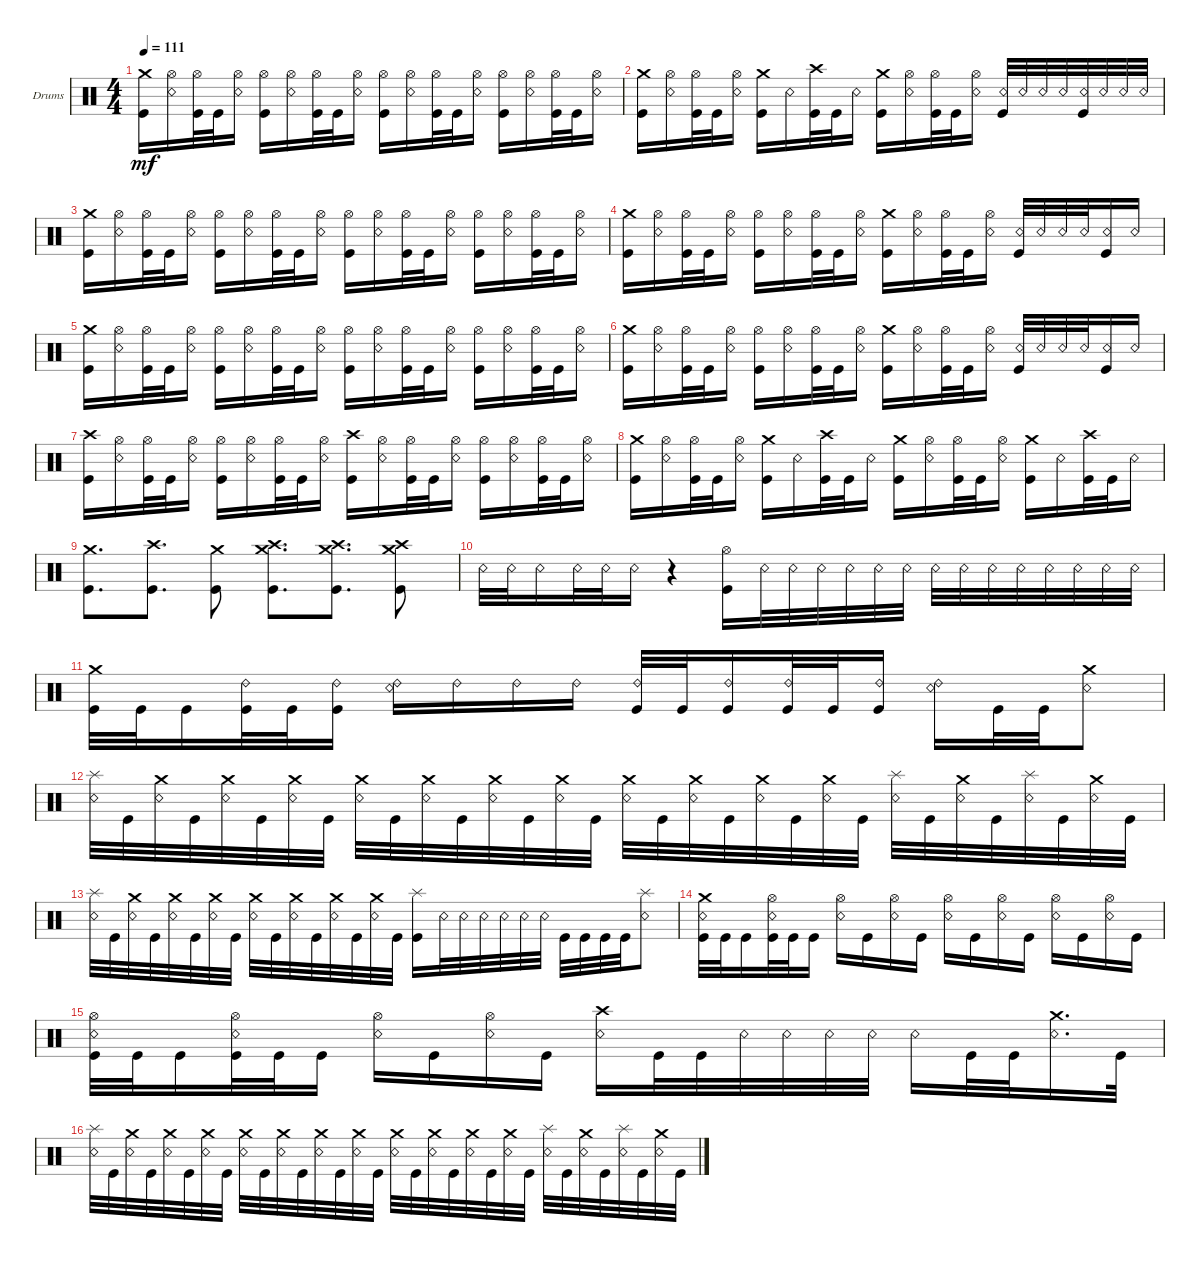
\defaultSystemsLayout 4
\bracketExtendMode groupsimilarinstruments
\firstSystemTrackNameOrientation horizontal
\otherSystemsTrackNameOrientation horizontal
\track ("Drums" "Drums") {instrument percussion}
\staff {score}
\articulation defaults
\ts (4 4)
\tempo 111
\clef neutral
\ks c
("Kick (hit)" "Crash medium (hit)").16{dy mf} ("Snare (rim shot)" "Hi-Hat (open)").16 ("Kick (hit)" "Hi-Hat (open)").32 "Kick (hit)".32 ("Snare (rim shot)" "Hi-Hat (open)").16 ("Kick (hit)" "Hi-Hat (open)").16 ("Snare (rim shot)" "Hi-Hat (open)").16 ("Kick (hit)" "Hi-Hat (open)").32 "Kick (hit)".32 ("Snare (rim shot)" "Hi-Hat (open)").16 ("Kick (hit)" "Hi-Hat (open)").16 ("Snare (rim shot)" "Hi-Hat (open)").16 ("Kick (hit)" "Hi-Hat (open)").32 "Kick (hit)".32 ("Snare (rim shot)" "Hi-Hat (open)").16 ("Kick (hit)" "Hi-Hat (open)").16 ("Snare (rim shot)" "Hi-Hat (open)").16 ("Kick (hit)" "Hi-Hat (open)").32 "Kick (hit)".32 ("Snare (rim shot)" "Hi-Hat (open)").16 |
("Kick (hit)" "Crash medium (hit)").16 ("Snare (rim shot)" "Hi-Hat (open)").16 ("Kick (hit)" "Hi-Hat (open)").32 "Kick (hit)".32 ("Snare (rim shot)" "Hi-Hat (open)").16 ("Kick (hit)" "Crash medium (hit)").16 "Snare (rim shot)".16 ("Kick (hit)" "Crash high (hit)").32 "Kick (hit)".32 "Snare (rim shot)".16 ("Kick (hit)" "Crash medium (hit)").16 ("Snare (rim shot)" "Hi-Hat (open)").16 ("Kick (hit)" "Hi-Hat (open)").32 "Kick (hit)".32 ("Snare (rim shot)" "Hi-Hat (open)").16 ("Kick (hit)" "Snare (rim shot)").32 "Snare (rim shot)".32 "Snare (rim shot)".32 "Snare (rim shot)".32 ("Kick (hit)" "Snare (rim shot)").32 "Snare (rim shot)".32 "Snare (rim shot)".32 "Snare (rim shot)".32 |
("Kick (hit)" "Crash medium (hit)").16 ("Snare (rim shot)" "Hi-Hat (open)").16 ("Kick (hit)" "Hi-Hat (open)").32 "Kick (hit)".32 ("Snare (rim shot)" "Hi-Hat (open)").16 ("Kick (hit)" "Hi-Hat (open)").16 ("Snare (rim shot)" "Hi-Hat (open)").16 ("Kick (hit)" "Hi-Hat (open)").32 "Kick (hit)".32 ("Snare (rim shot)" "Hi-Hat (open)").16 ("Kick (hit)" "Hi-Hat (open)").16 ("Snare (rim shot)" "Hi-Hat (open)").16 ("Kick (hit)" "Hi-Hat (open)").32 "Kick (hit)".32 ("Snare (rim shot)" "Hi-Hat (open)").16 ("Kick (hit)" "Hi-Hat (open)").16 ("Snare (rim shot)" "Hi-Hat (open)").16 ("Kick (hit)" "Hi-Hat (open)").32 "Kick (hit)".32 ("Snare (rim shot)" "Hi-Hat (open)").16 |
("Kick (hit)" "Crash medium (hit)").16 ("Snare (rim shot)" "Hi-Hat (open)").16 ("Kick (hit)" "Hi-Hat (open)").32 "Kick (hit)".32 ("Snare (rim shot)" "Hi-Hat (open)").16 ("Kick (hit)" "Hi-Hat (open)").16 ("Snare (rim shot)" "Hi-Hat (open)").16 ("Kick (hit)" "Hi-Hat (open)").32 "Kick (hit)".32 ("Snare (rim shot)" "Hi-Hat (open)").16 ("Kick (hit)" "Crash medium (hit)").16 ("Snare (rim shot)" "Hi-Hat (open)").16 ("Kick (hit)" "Hi-Hat (open)").32 "Kick (hit)".32 ("Snare (rim shot)" "Hi-Hat (open)").16 ("Kick (hit)" "Snare (rim shot)").32 "Snare (rim shot)".32 "Snare (rim shot)".32 "Snare (rim shot)".32 ("Kick (hit)" "Snare (rim shot)").16 "Snare (rim shot)".16 |
("Kick (hit)" "Crash medium (hit)").16 ("Snare (rim shot)" "Hi-Hat (open)").16 ("Kick (hit)" "Hi-Hat (open)").32 "Kick (hit)".32 ("Snare (rim shot)" "Hi-Hat (open)").16 ("Kick (hit)" "Hi-Hat (open)").16 ("Snare (rim shot)" "Hi-Hat (open)").16 ("Kick (hit)" "Hi-Hat (open)").32 "Kick (hit)".32 ("Snare (rim shot)" "Hi-Hat (open)").16 ("Kick (hit)" "Hi-Hat (open)").16 ("Snare (rim shot)" "Hi-Hat (open)").16 ("Kick (hit)" "Hi-Hat (open)").32 "Kick (hit)".32 ("Snare (rim shot)" "Hi-Hat (open)").16 ("Kick (hit)" "Hi-Hat (open)").16 ("Snare (rim shot)" "Hi-Hat (open)").16 ("Kick (hit)" "Hi-Hat (open)").32 "Kick (hit)".32 ("Snare (rim shot)" "Hi-Hat (open)").16 |
("Kick (hit)" "Crash medium (hit)").16 ("Snare (rim shot)" "Hi-Hat (open)").16 ("Kick (hit)" "Hi-Hat (open)").32 "Kick (hit)".32 ("Snare (rim shot)" "Hi-Hat (open)").16 ("Kick (hit)" "Hi-Hat (open)").16 ("Snare (rim shot)" "Hi-Hat (open)").16 ("Kick (hit)" "Hi-Hat (open)").32 "Kick (hit)".32 ("Snare (rim shot)" "Hi-Hat (open)").16 ("Kick (hit)" "Crash medium (hit)").16 ("Snare (rim shot)" "Hi-Hat (open)").16 ("Kick (hit)" "Hi-Hat (open)").32 "Kick (hit)".32 ("Snare (rim shot)" "Hi-Hat (open)").16 ("Kick (hit)" "Snare (rim shot)").32 "Snare (rim shot)".32 "Snare (rim shot)".32 "Snare (rim shot)".32 ("Kick (hit)" "Snare (rim shot)").16 "Snare (rim shot)".16 |
("Kick (hit)" "Crash high (hit)").16 ("Snare (rim shot)" "Hi-Hat (open)").16 ("Kick (hit)" "Hi-Hat (open)").32 "Kick (hit)".32 ("Snare (rim shot)" "Hi-Hat (open)").16 ("Kick (hit)" "Hi-Hat (open)").16 ("Snare (rim shot)" "Hi-Hat (open)").16 ("Kick (hit)" "Hi-Hat (open)").32 "Kick (hit)".32 ("Snare (rim shot)" "Hi-Hat (open)").16 ("Kick (hit)" "Crash high (hit)").16 ("Snare (rim shot)" "Hi-Hat (open)").16 ("Kick (hit)" "Hi-Hat (open)").32 "Kick (hit)".32 ("Snare (rim shot)" "Hi-Hat (open)").16 ("Kick (hit)" "Hi-Hat (open)").16 ("Snare (rim shot)" "Hi-Hat (open)").16 ("Kick (hit)" "Hi-Hat (open)").32 "Kick (hit)".32 ("Snare (rim shot)" "Hi-Hat (open)").16 |
("Kick (hit)" "Crash medium (hit)").16 ("Snare (rim shot)" "Hi-Hat (open)").16 ("Kick (hit)" "Hi-Hat (open)").32 "Kick (hit)".32 ("Snare (rim shot)" "Hi-Hat (open)").16 ("Kick (hit)" "Crash medium (hit)").16 "Snare (rim shot)".16 ("Kick (hit)" "Crash high (hit)").32 "Kick (hit)".32 "Snare (rim shot)".16 ("Kick (hit)" "Crash medium (hit)").16 ("Snare (rim shot)" "Hi-Hat (open)").16 ("Kick (hit)" "Hi-Hat (open)").32 "Kick (hit)".32 ("Snare (rim shot)" "Hi-Hat (open)").16 ("Kick (hit)" "Crash medium (hit)").16 "Snare (rim shot)".16 ("Kick (hit)" "Crash high (hit)").32 "Kick (hit)".32 "Snare (rim shot)".16 |
("Kick (hit)" "Crash medium (hit)").8{d} ("Kick (hit)" "Crash high (hit)").8{d} ("Kick (hit)" "Crash medium (hit)").8 ("Kick (hit)" "Crash medium (hit)" "Crash high (hit)").8{d} ("Kick (hit)" "Crash medium (hit)" "Crash high (hit)").8{d} ("Kick (hit)" "Crash medium (hit)" "Crash high (hit)").8 |
"Snare (rim shot)".32 "Snare (rim shot)".32 "Snare (rim shot)".16 "Snare (rim shot)".32 "Snare (rim shot)".32 "Snare (rim shot)".16 r.4 ("Hi-Hat (open)" "Kick (hit)").16 "Snare (rim shot)".32 "Snare (rim shot)".32 "Snare (rim shot)".32 "Snare (rim shot)".32 "Snare (rim shot)".32 "Snare (rim shot)".32 "Snare (rim shot)".32 "Snare (rim shot)".32 "Snare (rim shot)".32 "Snare (rim shot)".32 "Snare (rim shot)".32 "Snare (rim shot)".32 "Snare (rim shot)".32 "Snare (rim shot)".32 |
("Kick (hit)" "Crash medium (hit)").32 "Kick (hit)".32 "Kick (hit)".16 ("Kick (hit)" "Ride (bell) 2").32 "Kick (hit)".32 ("Kick (hit)" "Ride (bell) 2").16 ("Snare (rim shot)" "Ride (bell) 2").16 "Ride (bell) 2".16 "Ride (bell) 2".16 "Ride (bell) 2".16 ("Kick (hit)" "Ride (bell) 2").32 "Kick (hit)".32 ("Kick (hit)" "Ride (bell) 2").16 ("Kick (hit)" "Ride (bell) 2").32 "Kick (hit)".32 ("Kick (hit)" "Ride (bell) 2").16 ("Snare (rim shot)" "Ride (bell) 2").16 "Kick (hit)".32 "Kick (hit)".32 ("Snare (rim shot)" "Crash medium (hit)").8 |
("Snare (rim shot)" "Splash (hit)").32 "Kick (hit)".32 ("Snare (rim shot)" "Crash medium (hit)").32 "Kick (hit)".32 ("Snare (rim shot)" "Crash medium (hit)").32 "Kick (hit)".32 ("Snare (rim shot)" "Crash medium (hit)").32 "Kick (hit)".32 ("Snare (rim shot)" "Crash medium (hit)").32 "Kick (hit)".32 ("Snare (rim shot)" "Crash medium (hit)").32 "Kick (hit)".32 ("Snare (rim shot)" "Crash medium (hit)").32 "Kick (hit)".32 ("Snare (rim shot)" "Crash medium (hit)").32 "Kick (hit)".32 ("Snare (rim shot)" "Crash medium (hit)").32 "Kick (hit)".32 ("Snare (rim shot)" "Crash medium (hit)").32 "Kick (hit)".32 ("Snare (rim shot)" "Crash medium (hit)").32 "Kick (hit)".32 ("Snare (rim shot)" "Crash medium (hit)").32 "Kick (hit)".32 ("Snare (rim shot)" "Splash (hit)").32 "Kick (hit)".32 ("Snare (rim shot)" "Crash medium (hit)").32 "Kick (hit)".32 ("Snare (rim shot)" "Splash (hit)").32 "Kick (hit)".32 ("Snare (rim shot)" "Crash medium (hit)").32 "Kick (hit)".32 |
("Snare (rim shot)" "Splash (hit)").32 "Kick (hit)".32 ("Snare (rim shot)" "Crash medium (hit)").32 "Kick (hit)".32 ("Snare (rim shot)" "Crash medium (hit)").32 "Kick (hit)".32 ("Snare (rim shot)" "Crash medium (hit)").32 "Kick (hit)".32 ("Snare (rim shot)" "Crash medium (hit)").32 "Kick (hit)".32 ("Snare (rim shot)" "Crash medium (hit)").32 "Kick (hit)".32 ("Snare (rim shot)" "Crash medium (hit)").32 "Kick (hit)".32 ("Snare (rim shot)" "Crash medium (hit)").32 "Kick (hit)".32 ("Splash (hit)" "Kick (hit)").16 "Snare (rim shot)".32 "Snare (rim shot)".32 "Snare (rim shot)".32 "Snare (rim shot)".32 "Snare (rim shot)".32 "Snare (rim shot)".32 "Kick (hit)".32 "Kick (hit)".32 "Kick (hit)".32 "Kick (hit)".32 ("Snare (rim shot)" "Splash (hit)").8 |
("Kick (hit)" "Crash medium (hit)" "Snare (rim shot)").32 "Kick (hit)".32 "Kick (hit)".16 ("Kick (hit)" "Hi-Hat (open)" "Snare (rim shot)").32 "Kick (hit)".32 "Kick (hit)".16 ("Hi-Hat (open)" "Snare (rim shot)").16 "Kick (hit)".16 ("Hi-Hat (open)" "Snare (rim shot)").16 "Kick (hit)".16 ("Hi-Hat (open)" "Snare (rim shot)").16 "Kick (hit)".16 ("Hi-Hat (open)" "Snare (rim shot)").16 "Kick (hit)".16 ("Hi-Hat (open)" "Snare (rim shot)").16 "Kick (hit)".16 ("Hi-Hat (open)" "Snare (rim shot)").16 "Kick (hit)".16 |
("Kick (hit)" "Hi-Hat (open)" "Snare (rim shot)").32 "Kick (hit)".32 "Kick (hit)".16 ("Kick (hit)" "Hi-Hat (open)" "Snare (rim shot)").32 "Kick (hit)".32 "Kick (hit)".16 ("Hi-Hat (open)" "Snare (rim shot)").16 "Kick (hit)".16 ("Hi-Hat (open)" "Snare (rim shot)").16 "Kick (hit)".16 ("Crash high (hit)" "Snare (rim shot)").16 "Kick (hit)".32 "Kick (hit)".32 "Snare (rim shot)".32 "Snare (rim shot)".32 "Snare (rim shot)".32 "Snare (rim shot)".32 "Snare (rim shot)".16 "Kick (hit)".32 "Kick (hit)".32 ("Snare (rim shot)" "Crash medium (hit)").16{d} "Kick (hit)".32 |
("Snare (rim shot)" "Splash (hit)").32 "Kick (hit)".32 ("Snare (rim shot)" "Crash medium (hit)").32 "Kick (hit)".32 ("Snare (rim shot)" "Crash medium (hit)").32 "Kick (hit)".32 ("Snare (rim shot)" "Crash medium (hit)").32 "Kick (hit)".32 ("Snare (rim shot)" "Crash medium (hit)").32 "Kick (hit)".32 ("Snare (rim shot)" "Crash medium (hit)").32 "Kick (hit)".32 ("Snare (rim shot)" "Crash medium (hit)").32 "Kick (hit)".32 ("Snare (rim shot)" "Crash medium (hit)").32 "Kick (hit)".32 ("Snare (rim shot)" "Crash medium (hit)").32 "Kick (hit)".32 ("Snare (rim shot)" "Crash medium (hit)").32 "Kick (hit)".32 ("Snare (rim shot)" "Crash medium (hit)").32 "Kick (hit)".32 ("Snare (rim shot)" "Crash medium (hit)").32 "Kick (hit)".32 ("Snare (rim shot)" "Splash (hit)").32 "Kick (hit)".32 ("Snare (rim shot)" "Crash medium (hit)").32 "Kick (hit)".32 ("Snare (rim shot)" "Splash (hit)").32 "Kick (hit)".32 ("Snare (rim shot)" "Crash medium (hit)").32 "Kick (hit)".32
